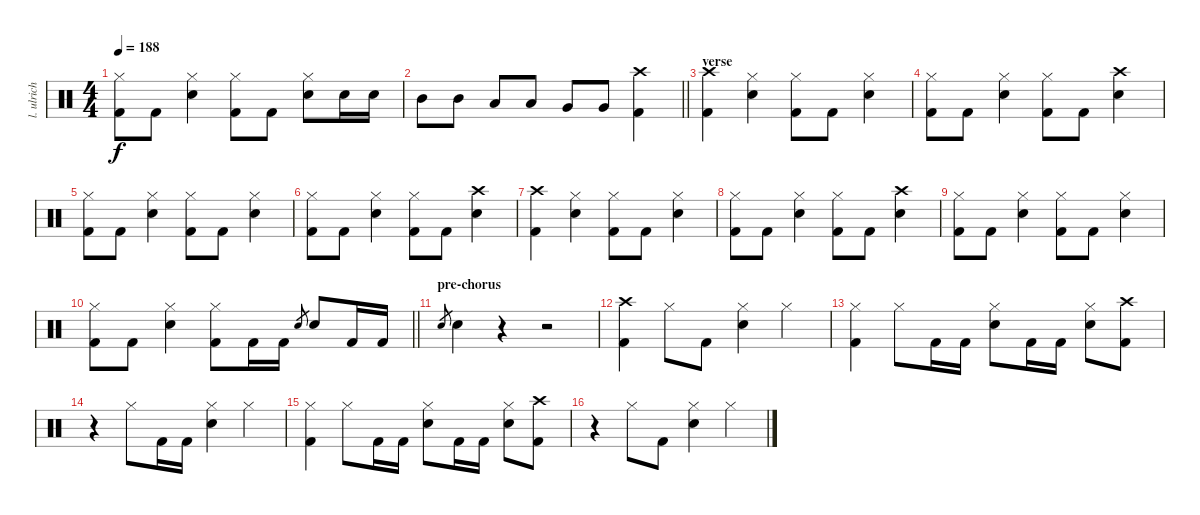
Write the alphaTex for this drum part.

\track ("l. ulrich - drums" "l. ulrich ") {instrument percussion}
\staff {score}
\articulation defaults
\ts (4 4)
\tempo 188
\clef neutral
\ks c
("Hi-Hat (closed)" "Kick (hit) 2").8{dy f} "Kick (hit) 2".8 ("Hi-Hat (closed)" "Snare (hit) 2").4 ("Hi-Hat (closed)" "Kick (hit) 2").8 "Kick (hit) 2".8 ("Hi-Hat (closed)" "Snare (hit) 2").8 "Snare (hit) 2".16 "Snare (hit) 2".16 |
\barLineRight lightlight "Mid Tom (hit)".8 "Mid Tom (hit)".8 "Low Tom (hit)".8 "Low Tom (hit)".8 "Very Low Tom (hit)".8 "Very Low Tom (hit)".8
("Crash high (hit)" "Kick (hit) 2").4 |
\section ("" "verse")
("Crash high (hit)" "Kick (hit) 2").4 ("Hi-Hat (closed)" "Snare (hit) 2").4 ("Hi-Hat (closed)" "Kick (hit) 2").8 "Kick (hit) 2".8 ("Hi-Hat (closed)" "Snare (hit) 2").4 |
("Hi-Hat (closed)" "Kick (hit) 2").8 "Kick (hit) 2".8 ("Hi-Hat (closed)" "Snare (hit) 2").4 ("Hi-Hat (closed)" "Kick (hit) 2").8 "Kick (hit) 2".8 ("Crash high (hit)" "Snare (hit) 2").4 |
("Hi-Hat (closed)" "Kick (hit) 2").8 "Kick (hit) 2".8 ("Hi-Hat (closed)" "Snare (hit) 2").4 ("Hi-Hat (closed)" "Kick (hit) 2").8 "Kick (hit) 2".8 ("Hi-Hat (closed)" "Snare (hit) 2").4 |
("Hi-Hat (closed)" "Kick (hit) 2").8 "Kick (hit) 2".8 ("Hi-Hat (closed)" "Snare (hit) 2").4 ("Hi-Hat (closed)" "Kick (hit) 2").8 "Kick (hit) 2".8 ("Crash high (hit)" "Snare (hit) 2").4 |
("Crash high (hit)" "Kick (hit) 2").4 ("Hi-Hat (closed)" "Snare (hit) 2").4 ("Hi-Hat (closed)" "Kick (hit) 2").8 "Kick (hit) 2".8 ("Hi-Hat (closed)" "Snare (hit) 2").4 |
("Hi-Hat (closed)" "Kick (hit) 2").8 "Kick (hit) 2".8 ("Hi-Hat (closed)" "Snare (hit) 2").4 ("Hi-Hat (closed)" "Kick (hit) 2").8 "Kick (hit) 2".8 ("Crash high (hit)" "Snare (hit) 2").4 |
("Hi-Hat (closed)" "Kick (hit) 2").8 "Kick (hit) 2".8 ("Hi-Hat (closed)" "Snare (hit) 2").4 ("Hi-Hat (closed)" "Kick (hit) 2").8 "Kick (hit) 2".8 ("Hi-Hat (closed)" "Snare (hit) 2").4 |
\barLineRight lightlight
("Hi-Hat (closed)" "Kick (hit) 2").8 "Kick (hit) 2".8 ("Hi-Hat (closed)" "Snare (hit) 2").4 ("Hi-Hat (closed)" "Kick (hit) 2").8 "Kick (hit) 2".16 "Kick (hit) 2".16 "Snare (hit) 2".8{gr} "Snare (hit) 2".8 "Kick (hit) 2".16 "Kick (hit) 2".16 |
\section ("" "pre-chorus")
"Snare (hit) 2".8{gr} "Snare (hit) 2".4 r.4 r.2 |
("Crash high (hit)" "Kick (hit) 2").4 "Hi-Hat (closed)".8 "Kick (hit) 2".8 ("Hi-Hat (closed)" "Snare (hit) 2").4 "Hi-Hat (closed)".4 |
("Hi-Hat (closed)" "Kick (hit) 2").4 "Hi-Hat (closed)".8 "Kick (hit) 2".16 "Kick (hit) 2".16 ("Hi-Hat (closed)" "Snare (hit) 2").8 "Kick (hit) 2".16 "Kick (hit) 2".16 ("Hi-Hat (closed)" "Snare (hit) 2").8 ("Crash high (hit)" "Kick (hit) 2").8 |
r.4 "Hi-Hat (closed)".8 "Kick (hit) 2".16 "Kick (hit) 2".16 ("Hi-Hat (closed)" "Snare (hit) 2").4 "Hi-Hat (closed)".4 |
("Hi-Hat (closed)" "Kick (hit) 2").4 "Hi-Hat (closed)".8 "Kick (hit) 2".16 "Kick (hit) 2".16 ("Hi-Hat (closed)" "Snare (hit) 2").8 "Kick (hit) 2".16 "Kick (hit) 2".16 ("Hi-Hat (closed)" "Snare (hit) 2").8 ("Crash high (hit)" "Kick (hit) 2").8 |
r.4 "Hi-Hat (closed)".8 "Kick (hit) 2".8 ("Hi-Hat (closed)" "Snare (hit) 2").4 "Hi-Hat (closed)".4
